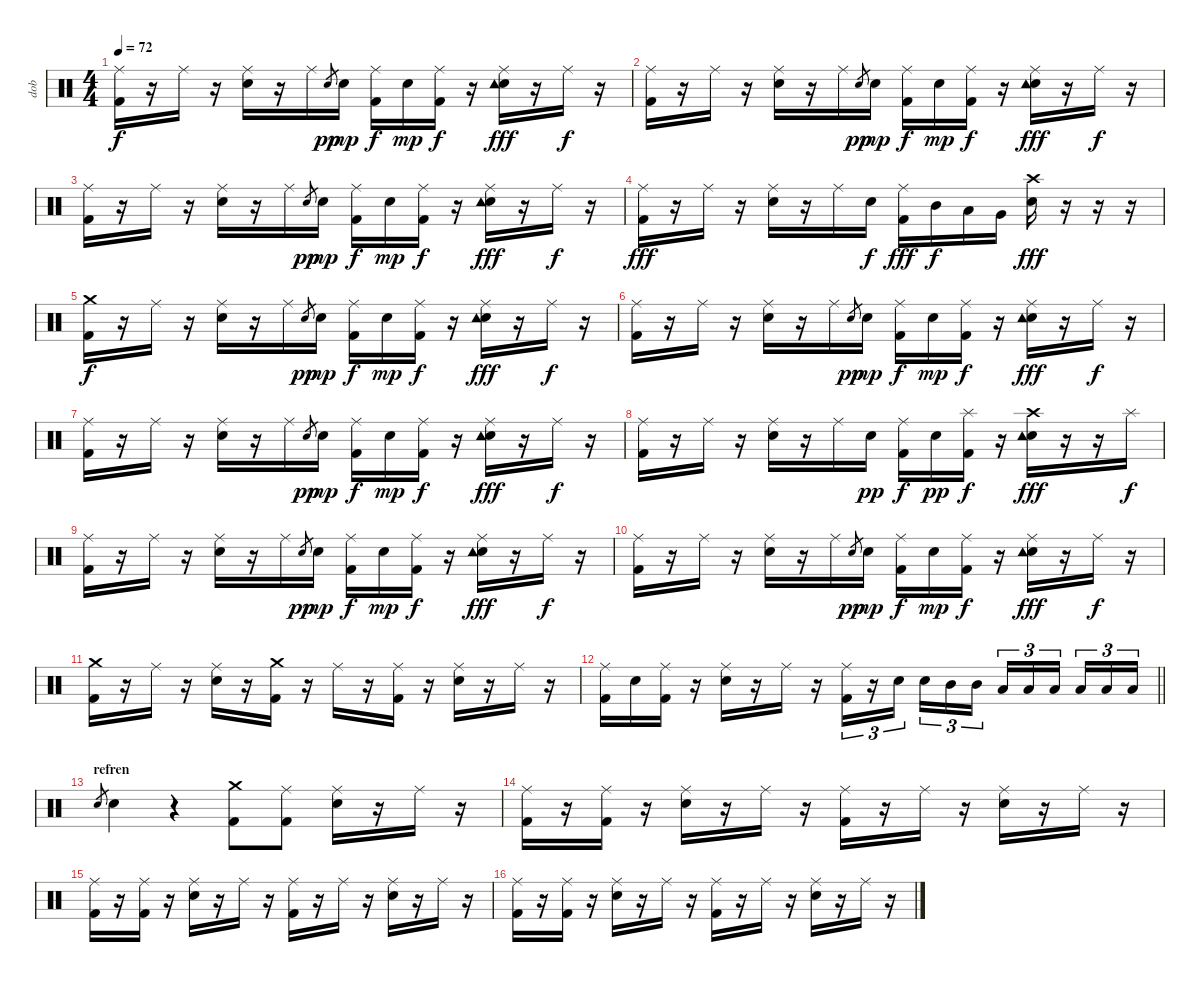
\track ("dob" "dob") {instrument percussion}
\staff {score}
\articulation defaults
\ts (4 4)
\tempo 72
\clef neutral
\ks c
("Kick (hit) 2" "Ride (middle)").16{dy f} r.16 "Ride (middle)".16 r.16 ("Ride (middle)" "Snare (hit) 2").16 r.16 "Ride (middle)".16 "Snare (hit) 2".8{gr dy pp} "Snare (hit) 2".16{dy mp} ("Ride (middle)" "Kick (hit) 2").16{dy f} "Snare (hit) 2".16{dy mp} ("Ride (middle)" "Kick (hit) 2").16{dy f} r.16 ("Ride (middle)" "Snare (hit) 2" "Tambourine (hit)").16{dy fff} r.16 "Ride (middle)".16{dy f} r.16 |
("Kick (hit) 2" "Ride (middle)").16 r.16 "Ride (middle)".16 r.16 ("Ride (middle)" "Snare (hit) 2").16 r.16 "Ride (middle)".16 "Snare (hit) 2".8{gr dy pp} "Snare (hit) 2".16{dy mp} ("Ride (middle)" "Kick (hit) 2").16{dy f} "Snare (hit) 2".16{dy mp} ("Ride (middle)" "Kick (hit) 2").16{dy f} r.16 ("Ride (middle)" "Snare (hit) 2" "Tambourine (hit)").16{dy fff} r.16 "Ride (middle)".16{dy f} r.16 |
("Kick (hit) 2" "Ride (middle)").16 r.16 "Ride (middle)".16 r.16 ("Ride (middle)" "Snare (hit) 2").16 r.16 "Ride (middle)".16 "Snare (hit) 2".8{gr dy pp} "Snare (hit) 2".16{dy mp} ("Ride (middle)" "Kick (hit) 2").16{dy f} "Snare (hit) 2".16{dy mp} ("Ride (middle)" "Kick (hit) 2").16{dy f} r.16 ("Ride (middle)" "Snare (hit) 2" "Tambourine (hit)").16{dy fff} r.16 "Ride (middle)".16{dy f} r.16 |
("Ride (middle)" "Kick (hit) 2").16{dy fff} r.16 "Ride (middle)".16 r.16 ("Ride (middle)" "Snare (hit) 2").16 r.16 "Ride (middle)".16 "Snare (hit) 2".16{dy f} ("Ride (middle)" "Kick (hit) 2").16{dy fff} "Mid Tom (hit)".16{dy f} "Low Tom (hit)".16 "Very Low Tom (hit)".16 ("Snare (hit) 2" "Crash high (hit)").16{dy fff} r.16 r.16 r.16 |
("Kick (hit) 2" "Crash medium (hit)").16{dy f} r.16 "Ride (middle)".16 r.16 ("Ride (middle)" "Snare (hit) 2").16 r.16 "Ride (middle)".16 "Snare (hit) 2".8{gr dy pp} "Snare (hit) 2".16{dy mp} ("Ride (middle)" "Kick (hit) 2").16{dy f} "Snare (hit) 2".16{dy mp} ("Ride (middle)" "Kick (hit) 2").16{dy f} r.16 ("Ride (middle)" "Snare (hit) 2" "Tambourine (hit)").16{dy fff} r.16 "Ride (middle)".16{dy f} r.16 |
("Kick (hit) 2" "Ride (middle)").16 r.16 "Ride (middle)".16 r.16 ("Ride (middle)" "Snare (hit) 2").16 r.16 "Ride (middle)".16 "Snare (hit) 2".8{gr dy pp} "Snare (hit) 2".16{dy mp} ("Ride (middle)" "Kick (hit) 2").16{dy f} "Snare (hit) 2".16{dy mp} ("Ride (middle)" "Kick (hit) 2").16{dy f} r.16 ("Ride (middle)" "Snare (hit) 2" "Tambourine (hit)").16{dy fff} r.16 "Ride (middle)".16{dy f} r.16 |
("Kick (hit) 2" "Ride (middle)").16 r.16 "Ride (middle)".16 r.16 ("Ride (middle)" "Snare (hit) 2").16 r.16 "Ride (middle)".16 "Snare (hit) 2".8{gr dy pp} "Snare (hit) 2".16{dy mp} ("Ride (middle)" "Kick (hit) 2").16{dy f} "Snare (hit) 2".16{dy mp} ("Ride (middle)" "Kick (hit) 2").16{dy f} r.16 ("Ride (middle)" "Snare (hit) 2" "Tambourine (hit)").16{dy fff} r.16 "Ride (middle)".16{dy f} r.16 |
("Kick (hit) 2" "Ride (middle)").16 r.16 "Ride (middle)".16 r.16 ("Ride (middle)" "Snare (hit) 2").16 r.16 "Ride (middle)".16 "Snare (hit) 2".16{dy pp} ("Ride (middle)" "Kick (hit) 2").16{dy f} "Snare (hit) 2".16{dy pp} ("Splash (hit)" "Kick (hit) 2").16{dy f} r.16 ("Snare (hit) 2" "Tambourine (hit)" "Crash high (hit)").16{dy fff} r.16 r.16 "Splash (hit)".16{dy f} |
("Kick (hit) 2" "Ride (middle)").16 r.16 "Ride (middle)".16 r.16 ("Ride (middle)" "Snare (hit) 2").16 r.16 "Ride (middle)".16 "Snare (hit) 2".8{gr dy pp} "Snare (hit) 2".16{dy mp} ("Ride (middle)" "Kick (hit) 2").16{dy f} "Snare (hit) 2".16{dy mp} ("Ride (middle)" "Kick (hit) 2").16{dy f} r.16 ("Ride (middle)" "Snare (hit) 2" "Tambourine (hit)").16{dy fff} r.16 "Ride (middle)".16{dy f} r.16 |
("Kick (hit) 2" "Ride (middle)").16 r.16 "Ride (middle)".16 r.16 ("Ride (middle)" "Snare (hit) 2").16 r.16 "Ride (middle)".16 "Snare (hit) 2".8{gr dy pp} "Snare (hit) 2".16{dy mp} ("Ride (middle)" "Kick (hit) 2").16{dy f} "Snare (hit) 2".16{dy mp} ("Ride (middle)" "Kick (hit) 2").16{dy f} r.16 ("Ride (middle)" "Snare (hit) 2" "Tambourine (hit)").16{dy fff} r.16 "Ride (middle)".16{dy f} r.16 |
("Kick (hit) 2" "Crash medium (hit)").16 r.16 "Ride (middle)".16 r.16 ("Ride (middle)" "Snare (hit) 2").16 r.16 ("Crash medium (hit)" "Kick (hit) 2").16 r.16 "Ride (middle)".16 r.16 ("Ride (middle)" "Kick (hit) 2").16 r.16 ("Ride (middle)" "Snare (hit) 2").16 r.16 "Ride (middle)".16 r.16 |
\barLineRight lightlight
("Kick (hit) 2" "Ride (middle)").16 "Snare (hit) 2".16 ("Ride (middle)" "Kick (hit) 2").16 r.16 ("Ride (middle)" "Snare (hit) 2").16 r.16 "Ride (middle)".16 r.16 ("Ride (middle)" "Kick (hit) 2").16{tu (3 2)} r.16{tu (3 2)} "Snare (hit) 2".16{tu (3 2) beam splitsecondary} "Snare (hit) 2".16{tu (3 2)} "Mid Tom (hit)".16{tu (3 2)} "Mid Tom (hit)".16{tu (3 2)} "Low Tom (hit)".16{tu (3 2)} "Low Tom (hit)".16{tu (3 2)} "Low Tom (hit)".16{tu (3 2) beam splitsecondary} "Low Floor Tom (hit)".16{tu (3 2)} "Low Floor Tom (hit)".16{tu (3 2)} "Low Floor Tom (hit)".16{tu (3 2)} |
\section ("" "refren")
"Snare (hit) 2".8{gr} "Snare (hit) 2".4 r.4 ("Kick (hit) 2" "Crash medium (hit)").8 ("Kick (hit) 2" "Ride (middle)").8 ("Snare (hit) 2" "Ride (middle)").16 r.16 "Ride (middle)".16 r.16 |
("Kick (hit) 2" "Ride (middle)").16 r.16 ("Ride (middle)" "Kick (hit) 2").16 r.16 ("Snare (hit) 2" "Ride (middle)").16 r.16 "Ride (middle)".16 r.16 ("Kick (hit) 2" "Ride (middle)").16 r.16 "Ride (middle)".16 r.16 ("Snare (hit) 2" "Ride (middle)").16 r.16 "Ride (middle)".16 r.16 |
("Kick (hit) 2" "Ride (middle)").16 r.16 ("Ride (middle)" "Kick (hit) 2").16 r.16 ("Snare (hit) 2" "Ride (middle)").16 r.16 "Ride (middle)".16 r.16 ("Kick (hit) 2" "Ride (middle)").16 r.16 "Ride (middle)".16 r.16 ("Snare (hit) 2" "Ride (middle)").16 r.16 "Ride (middle)".16 r.16 |
("Kick (hit) 2" "Ride (middle)").16 r.16 ("Ride (middle)" "Kick (hit) 2").16 r.16 ("Snare (hit) 2" "Ride (middle)").16 r.16 "Ride (middle)".16 r.16 ("Kick (hit) 2" "Ride (middle)").16 r.16 "Ride (middle)".16 r.16 ("Snare (hit) 2" "Ride (middle)").16 r.16 "Ride (middle)".16 r.16
